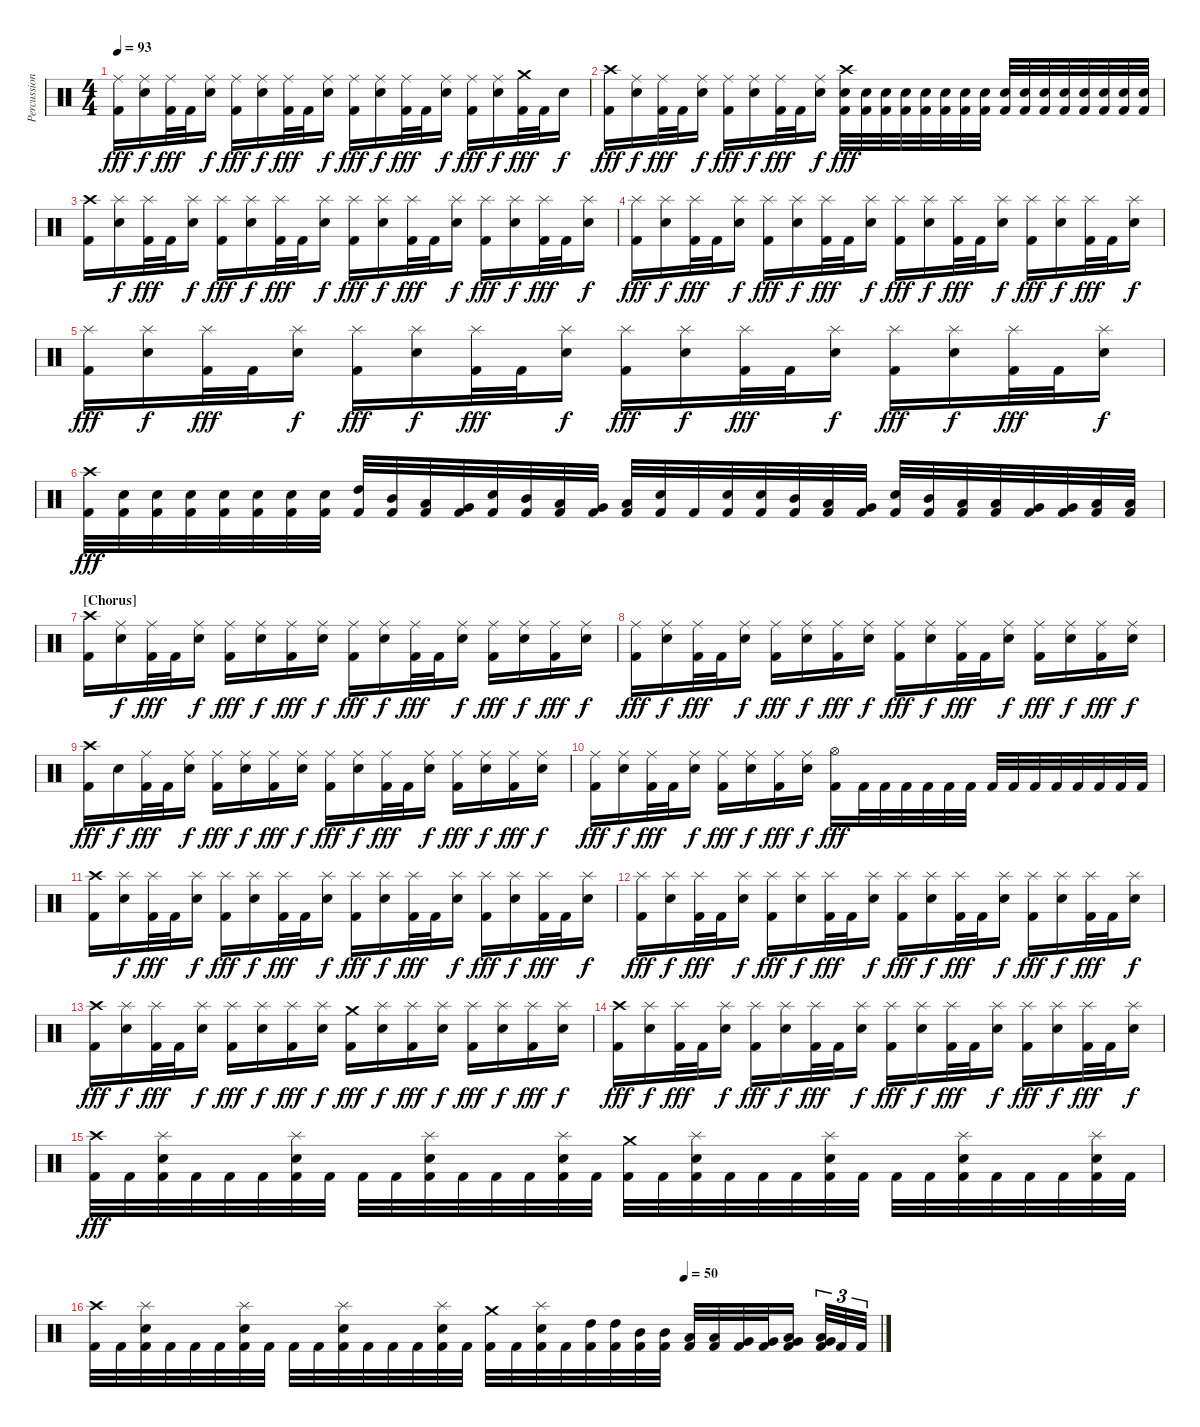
\track ("Percussion" "Percussion") {instrument percussion}
\staff {score}
\articulation defaults
\ts (4 4)
\tempo 93
\clef neutral
\ks c
("Ride (middle)" "Kick (hit) 2").16{dy fff} ("Ride (middle)" "Snare (hit) 2").16{dy f} ("Ride (middle)" "Kick (hit) 2").32{dy fff} "Kick (hit) 2".32 ("Ride (middle)" "Snare (hit) 2").16{dy f} ("Ride (middle)" "Kick (hit) 2").16{dy fff} ("Ride (middle)" "Snare (hit) 2").16{dy f} ("Ride (middle)" "Kick (hit) 2").32{dy fff} "Kick (hit) 2".32 ("Ride (middle)" "Snare (hit) 2").16{dy f} ("Ride (middle)" "Kick (hit) 2").16{dy fff} ("Ride (middle)" "Snare (hit) 2").16{dy f} ("Ride (middle)" "Kick (hit) 2").32{dy fff} "Kick (hit) 2".32 ("Ride (middle)" "Snare (hit) 2").16{dy f} ("Ride (middle)" "Kick (hit) 2").16{dy fff} ("Ride (middle)" "Snare (hit) 2").16{dy f} ("Crash medium (hit)" "Kick (hit) 2").32{dy fff} "Kick (hit) 2".32 "Snare (hit) 2".16{dy f} |
("Crash high (hit)" "Kick (hit) 2").16{dy fff} ("Ride (middle)" "Snare (hit) 2").16{dy f} ("Ride (middle)" "Kick (hit) 2").32{dy fff} "Kick (hit) 2".32 ("Ride (middle)" "Snare (hit) 2").16{dy f} ("Ride (middle)" "Kick (hit) 2").16{dy fff} ("Ride (middle)" "Snare (hit) 2").16{dy f} ("Ride (middle)" "Kick (hit) 2").32{dy fff} "Kick (hit) 2".32 ("Ride (middle)" "Snare (hit) 2").16{dy f} ("Crash high (hit)" "Snare (hit) 2" "Kick (hit) 2").32{dy fff} ("Snare (hit) 2" "Kick (hit) 2").32 ("Snare (hit) 2" "Kick (hit) 2").32 ("Snare (hit) 2" "Kick (hit) 2").32 ("Snare (hit) 2" "Kick (hit) 2").32 ("Snare (hit) 2" "Kick (hit) 2").32 ("Snare (hit) 2" "Kick (hit) 2").32 ("Snare (hit) 2" "Kick (hit) 2").32 ("Snare (hit) 2" "Kick (hit) 2").32 ("Snare (hit) 2" "Kick (hit) 2").32 ("Snare (hit) 2" "Kick (hit) 2").32 ("Snare (hit) 2" "Kick (hit) 2").32 ("Snare (hit) 2" "Kick (hit) 2").32 ("Snare (hit) 2" "Kick (hit) 2").32 ("Snare (hit) 2" "Kick (hit) 2").32 ("Snare (hit) 2" "Kick (hit) 2").32 |
("Crash high (hit)" "Kick (hit) 2").16 ("Splash (hit)" "Snare (hit) 2").16{dy f} ("Splash (hit)" "Kick (hit) 2").32{dy fff} "Kick (hit) 2".32 ("Splash (hit)" "Snare (hit) 2").16{dy f} ("Splash (hit)" "Kick (hit) 2").16{dy fff} ("Splash (hit)" "Snare (hit) 2").16{dy f} ("Splash (hit)" "Kick (hit) 2").32{dy fff} "Kick (hit) 2".32 ("Splash (hit)" "Snare (hit) 2").16{dy f} ("Splash (hit)" "Kick (hit) 2").16{dy fff} ("Splash (hit)" "Snare (hit) 2").16{dy f} ("Splash (hit)" "Kick (hit) 2").32{dy fff} "Kick (hit) 2".32 ("Splash (hit)" "Snare (hit) 2").16{dy f} ("Splash (hit)" "Kick (hit) 2").16{dy fff} ("Splash (hit)" "Snare (hit) 2").16{dy f} ("Splash (hit)" "Kick (hit) 2").32{dy fff} "Kick (hit) 2".32 ("Splash (hit)" "Snare (hit) 2").16{dy f} |
("Splash (hit)" "Kick (hit) 2").16{dy fff} ("Splash (hit)" "Snare (hit) 2").16{dy f} ("Splash (hit)" "Kick (hit) 2").32{dy fff} "Kick (hit) 2".32 ("Splash (hit)" "Snare (hit) 2").16{dy f} ("Splash (hit)" "Kick (hit) 2").16{dy fff} ("Splash (hit)" "Snare (hit) 2").16{dy f} ("Splash (hit)" "Kick (hit) 2").32{dy fff} "Kick (hit) 2".32 ("Splash (hit)" "Snare (hit) 2").16{dy f} ("Splash (hit)" "Kick (hit) 2").16{dy fff} ("Splash (hit)" "Snare (hit) 2").16{dy f} ("Splash (hit)" "Kick (hit) 2").32{dy fff} "Kick (hit) 2".32 ("Splash (hit)" "Snare (hit) 2").16{dy f} ("Splash (hit)" "Kick (hit) 2").16{dy fff} ("Splash (hit)" "Snare (hit) 2").16{dy f} ("Splash (hit)" "Kick (hit) 2").32{dy fff} "Kick (hit) 2".32 ("Splash (hit)" "Snare (hit) 2").16{dy f} |
("Splash (hit)" "Kick (hit) 2").16{dy fff} ("Splash (hit)" "Snare (hit) 2").16{dy f} ("Splash (hit)" "Kick (hit) 2").32{dy fff} "Kick (hit) 2".32 ("Splash (hit)" "Snare (hit) 2").16{dy f} ("Splash (hit)" "Kick (hit) 2").16{dy fff} ("Splash (hit)" "Snare (hit) 2").16{dy f} ("Splash (hit)" "Kick (hit) 2").32{dy fff} "Kick (hit) 2".32 ("Splash (hit)" "Snare (hit) 2").16{dy f} ("Splash (hit)" "Kick (hit) 2").16{dy fff} ("Splash (hit)" "Snare (hit) 2").16{dy f} ("Splash (hit)" "Kick (hit) 2").32{dy fff} "Kick (hit) 2".32 ("Splash (hit)" "Snare (hit) 2").16{dy f} ("Splash (hit)" "Kick (hit) 2").16{dy fff} ("Splash (hit)" "Snare (hit) 2").16{dy f} ("Splash (hit)" "Kick (hit) 2").32{dy fff} "Kick (hit) 2".32 ("Splash (hit)" "Snare (hit) 2").16{dy f} |
("Crash high (hit)" "Kick (hit) 2").32{dy fff} ("Snare (hit) 2" "Kick (hit) 2").32 ("Snare (hit) 2" "Kick (hit) 2").32 ("Snare (hit) 2" "Kick (hit) 2").32 ("Snare (hit) 2" "Kick (hit) 2").32 ("Snare (hit) 2" "Kick (hit) 2").32 ("Snare (hit) 2" "Kick (hit) 2").32 ("Snare (hit) 2" "Kick (hit) 2").32 ("High Tom (hit)" "Kick (hit) 2").32 ("Mid Tom (hit)" "Kick (hit) 2").32 ("Low Tom (hit)" "Kick (hit) 2").32 ("Very Low Tom (hit)" "Kick (hit) 2").32 ("Snare (hit) 2" "Kick (hit) 2").32 ("Mid Tom (hit)" "Kick (hit) 2").32 ("Low Tom (hit)" "Kick (hit) 2").32 ("Very Low Tom (hit)" "Kick (hit) 2").32 ("Low Floor Tom (hit)" "Kick (hit) 2").32 ("Snare (hit) 2" "Kick (hit) 2").32 "Kick (hit) 2".32 ("Snare (hit) 2" "Kick (hit) 2").32 ("Snare (hit) 2" "Kick (hit) 2").32 ("Mid Tom (hit)" "Kick (hit) 2").32 ("Low Tom (hit)" "Kick (hit) 2").32 ("Very Low Tom (hit)" "Kick (hit) 2").32 ("Snare (hit) 2" "Kick (hit) 2").32 ("Mid Tom (hit)" "Kick (hit) 2").32 ("Low Tom (hit)" "Kick (hit) 2").32 ("Low Tom (hit)" "Kick (hit) 2").32 ("Very Low Tom (hit)" "Kick (hit) 2").32 ("Very Low Tom (hit)" "Kick (hit) 2").32 ("Low Floor Tom (hit)" "Kick (hit) 2").32 ("Low Floor Tom (hit)" "Kick (hit) 2").32 |
\section ("" "[Chorus]")
("Crash high (hit)" "Kick (hit) 2").16 ("Ride (middle)" "Snare (hit) 2").16{dy f} ("Ride (middle)" "Kick (hit) 2").32{dy fff} "Kick (hit) 2".32 ("Ride (middle)" "Snare (hit) 2").16{dy f} ("Ride (middle)" "Kick (hit) 2").16{dy fff} ("Ride (middle)" "Snare (hit) 2").16{dy f} ("Ride (middle)" "Kick (hit) 2").16{dy fff} ("Ride (middle)" "Snare (hit) 2").16{dy f} ("Ride (middle)" "Kick (hit) 2").16{dy fff} ("Ride (middle)" "Snare (hit) 2").16{dy f} ("Ride (middle)" "Kick (hit) 2").32{dy fff} "Kick (hit) 2".32 ("Ride (middle)" "Snare (hit) 2").16{dy f} ("Ride (middle)" "Kick (hit) 2").16{dy fff} ("Ride (middle)" "Snare (hit) 2").16{dy f} ("Ride (middle)" "Kick (hit) 2").16{dy fff} ("Ride (middle)" "Snare (hit) 2").16{dy f} |
("Ride (middle)" "Kick (hit) 2").16{dy fff} ("Ride (middle)" "Snare (hit) 2").16{dy f} ("Ride (middle)" "Kick (hit) 2").32{dy fff} "Kick (hit) 2".32 ("Ride (middle)" "Snare (hit) 2").16{dy f} ("Ride (middle)" "Kick (hit) 2").16{dy fff} ("Ride (middle)" "Snare (hit) 2").16{dy f} ("Ride (middle)" "Kick (hit) 2").16{dy fff} ("Ride (middle)" "Snare (hit) 2").16{dy f} ("Ride (middle)" "Kick (hit) 2").16{dy fff} ("Ride (middle)" "Snare (hit) 2").16{dy f} ("Ride (middle)" "Kick (hit) 2").32{dy fff} "Kick (hit) 2".32 ("Ride (middle)" "Snare (hit) 2").16{dy f} ("Ride (middle)" "Kick (hit) 2").16{dy fff} ("Ride (middle)" "Snare (hit) 2").16{dy f} ("Ride (middle)" "Kick (hit) 2").16{dy fff} ("Ride (middle)" "Snare (hit) 2").16{dy f} |
("Crash high (hit)" "Kick (hit) 2").16{dy fff} "Snare (hit) 2".16{dy f} ("Ride (middle)" "Kick (hit) 2").32{dy fff} "Kick (hit) 2".32 ("Ride (middle)" "Snare (hit) 2").16{dy f} ("Ride (middle)" "Kick (hit) 2").16{dy fff} ("Ride (middle)" "Snare (hit) 2").16{dy f} ("Ride (middle)" "Kick (hit) 2").16{dy fff} ("Ride (middle)" "Snare (hit) 2").16{dy f} ("Ride (middle)" "Kick (hit) 2").16{dy fff} ("Ride (middle)" "Snare (hit) 2").16{dy f} ("Ride (middle)" "Kick (hit) 2").32{dy fff} "Kick (hit) 2".32 ("Ride (middle)" "Snare (hit) 2").16{dy f} ("Ride (middle)" "Kick (hit) 2").16{dy fff} ("Ride (middle)" "Snare (hit) 2").16{dy f} ("Ride (middle)" "Kick (hit) 2").16{dy fff} ("Ride (middle)" "Snare (hit) 2").16{dy f} |
("Ride (middle)" "Kick (hit) 2").16{dy fff} ("Ride (middle)" "Snare (hit) 2").16{dy f} ("Ride (middle)" "Kick (hit) 2").32{dy fff} "Kick (hit) 2".32 ("Ride (middle)" "Snare (hit) 2").16{dy f} ("Ride (middle)" "Kick (hit) 2").16{dy fff} ("Ride (middle)" "Snare (hit) 2").16{dy f} ("Ride (middle)" "Kick (hit) 2").16{dy fff} ("Ride (middle)" "Snare (hit) 2").16{dy f} ("Hi-Hat (open)" "Kick (hit) 2").16{dy fff} "Kick (hit) 2".32 "Kick (hit) 2".32 "Kick (hit) 2".32 "Kick (hit) 2".32 "Kick (hit) 2".32 "Kick (hit) 2".32 "Kick (hit) 2".32 "Kick (hit) 2".32 "Kick (hit) 2".32 "Kick (hit) 2".32 "Kick (hit) 2".32 "Kick (hit) 2".32 "Kick (hit) 2".32 "Kick (hit) 2".32 |
("Crash high (hit)" "Kick (hit) 2").16 ("Splash (hit)" "Snare (hit) 2").16{dy f} ("Splash (hit)" "Kick (hit) 2").32{dy fff} "Kick (hit) 2".32 ("Splash (hit)" "Snare (hit) 2").16{dy f} ("Splash (hit)" "Kick (hit) 2").16{dy fff} ("Splash (hit)" "Snare (hit) 2").16{dy f} ("Splash (hit)" "Kick (hit) 2").32{dy fff} "Kick (hit) 2".32 ("Splash (hit)" "Snare (hit) 2").16{dy f} ("Splash (hit)" "Kick (hit) 2").16{dy fff} ("Splash (hit)" "Snare (hit) 2").16{dy f} ("Splash (hit)" "Kick (hit) 2").32{dy fff} "Kick (hit) 2".32 ("Splash (hit)" "Snare (hit) 2").16{dy f} ("Splash (hit)" "Kick (hit) 2").16{dy fff} ("Splash (hit)" "Snare (hit) 2").16{dy f} ("Splash (hit)" "Kick (hit) 2").32{dy fff} "Kick (hit) 2".32 ("Splash (hit)" "Snare (hit) 2").16{dy f} |
("Splash (hit)" "Kick (hit) 2").16{dy fff} ("Splash (hit)" "Snare (hit) 2").16{dy f} ("Splash (hit)" "Kick (hit) 2").32{dy fff} "Kick (hit) 2".32 ("Splash (hit)" "Snare (hit) 2").16{dy f} ("Splash (hit)" "Kick (hit) 2").16{dy fff} ("Splash (hit)" "Snare (hit) 2").16{dy f} ("Splash (hit)" "Kick (hit) 2").32{dy fff} "Kick (hit) 2".32 ("Splash (hit)" "Snare (hit) 2").16{dy f} ("Splash (hit)" "Kick (hit) 2").16{dy fff} ("Splash (hit)" "Snare (hit) 2").16{dy f} ("Splash (hit)" "Kick (hit) 2").32{dy fff} "Kick (hit) 2".32 ("Splash (hit)" "Snare (hit) 2").16{dy f} ("Splash (hit)" "Kick (hit) 2").16{dy fff} ("Splash (hit)" "Snare (hit) 2").16{dy f} ("Splash (hit)" "Kick (hit) 2").32{dy fff} "Kick (hit) 2".32 ("Splash (hit)" "Snare (hit) 2").16{dy f} |
("Crash high (hit)" "Kick (hit) 2").16{dy fff} ("Splash (hit)" "Snare (hit) 2").16{dy f} ("Splash (hit)" "Kick (hit) 2").32{dy fff} "Kick (hit) 2".32 ("Splash (hit)" "Snare (hit) 2").16{dy f} ("Splash (hit)" "Kick (hit) 2").16{dy fff} ("Splash (hit)" "Snare (hit) 2").16{dy f} ("Splash (hit)" "Kick (hit) 2").16{dy fff} ("Splash (hit)" "Snare (hit) 2").16{dy f} ("Crash medium (hit)" "Kick (hit) 2").16{dy fff} ("Splash (hit)" "Snare (hit) 2").16{dy f} ("Splash (hit)" "Kick (hit) 2").16{dy fff} ("Splash (hit)" "Snare (hit) 2").16{dy f} ("Splash (hit)" "Kick (hit) 2").16{dy fff} ("Splash (hit)" "Snare (hit) 2").16{dy f} ("Splash (hit)" "Kick (hit) 2").16{dy fff} ("Splash (hit)" "Snare (hit) 2").16{dy f} |
("Crash high (hit)" "Kick (hit) 2").16{dy fff} ("Splash (hit)" "Snare (hit) 2").16{dy f} ("Splash (hit)" "Kick (hit) 2").32{dy fff} "Kick (hit) 2".32 ("Splash (hit)" "Snare (hit) 2").16{dy f} ("Splash (hit)" "Kick (hit) 2").16{dy fff} ("Splash (hit)" "Snare (hit) 2").16{dy f} ("Splash (hit)" "Kick (hit) 2").32{dy fff} "Kick (hit) 2".32 ("Splash (hit)" "Snare (hit) 2").16{dy f} ("Splash (hit)" "Kick (hit) 2").16{dy fff} ("Splash (hit)" "Snare (hit) 2").16{dy f} ("Splash (hit)" "Kick (hit) 2").32{dy fff} "Kick (hit) 2".32 ("Splash (hit)" "Snare (hit) 2").16{dy f} ("Splash (hit)" "Kick (hit) 2").16{dy fff} ("Splash (hit)" "Snare (hit) 2").16{dy f} ("Splash (hit)" "Kick (hit) 2").32{dy fff} "Kick (hit) 2".32 ("Splash (hit)" "Snare (hit) 2").16{dy f} |
("Crash high (hit)" "Kick (hit) 2").32{dy fff} "Kick (hit) 2".32 ("Splash (hit)" "Snare (hit) 2" "Kick (hit) 2").32 "Kick (hit) 2".32 "Kick (hit) 2".32 "Kick (hit) 2".32 ("Splash (hit)" "Snare (hit) 2" "Kick (hit) 2").32 "Kick (hit) 2".32 "Kick (hit) 2".32 "Kick (hit) 2".32 ("Splash (hit)" "Snare (hit) 2" "Kick (hit) 2").32 "Kick (hit) 2".32 "Kick (hit) 2".32 "Kick (hit) 2".32 ("Splash (hit)" "Snare (hit) 2" "Kick (hit) 2").32 "Kick (hit) 2".32 ("Crash medium (hit)" "Kick (hit) 2").32 "Kick (hit) 2".32 ("Splash (hit)" "Snare (hit) 2" "Kick (hit) 2").32 "Kick (hit) 2".32 "Kick (hit) 2".32 "Kick (hit) 2".32 ("Splash (hit)" "Snare (hit) 2" "Kick (hit) 2").32 "Kick (hit) 2".32 "Kick (hit) 2".32 "Kick (hit) 2".32 ("Splash (hit)" "Snare (hit) 2" "Kick (hit) 2").32 "Kick (hit) 2".32 "Kick (hit) 2".32 "Kick (hit) 2".32 ("Splash (hit)" "Snare (hit) 2" "Kick (hit) 2").32 "Kick (hit) 2".32 |
\tempo (50 0.75)
("Crash high (hit)" "Kick (hit) 2").32 "Kick (hit) 2".32 ("Splash (hit)" "Snare (hit) 2" "Kick (hit) 2").32 "Kick (hit) 2".32 "Kick (hit) 2".32 "Kick (hit) 2".32 ("Splash (hit)" "Snare (hit) 2" "Kick (hit) 2").32 "Kick (hit) 2".32 "Kick (hit) 2".32 "Kick (hit) 2".32 ("Splash (hit)" "Snare (hit) 2" "Kick (hit) 2").32 "Kick (hit) 2".32 "Kick (hit) 2".32 "Kick (hit) 2".32 ("Splash (hit)" "Snare (hit) 2" "Kick (hit) 2").32 "Kick (hit) 2".32 ("Crash medium (hit)" "Kick (hit) 2").32 "Kick (hit) 2".32 ("Splash (hit)" "Snare (hit) 2" "Kick (hit) 2").32 "Kick (hit) 2".32 ("High Tom (hit)" "Kick (hit) 2").32 ("High Tom (hit)" "Kick (hit) 2").32 ("Mid Tom (hit)" "Kick (hit) 2").32 ("Mid Tom (hit)" "Kick (hit) 2").32 ("Low Tom (hit)" "Kick (hit) 2").32 ("Low Tom (hit)" "Kick (hit) 2").32 ("Very Low Tom (hit)" "Kick (hit) 2").32 ("Very Low Tom (hit)" "Kick (hit) 2").32 ("Very Low Tom (hit)" "Low Floor Tom (hit)" "Kick (hit) 2").16 ("Very Low Tom (hit)" "Low Floor Tom (hit)" "Kick (hit) 2").32{tu (3 2)} "Kick (hit) 2".32{tu (3 2)} "Kick (hit) 2".32{tu (3 2)}
